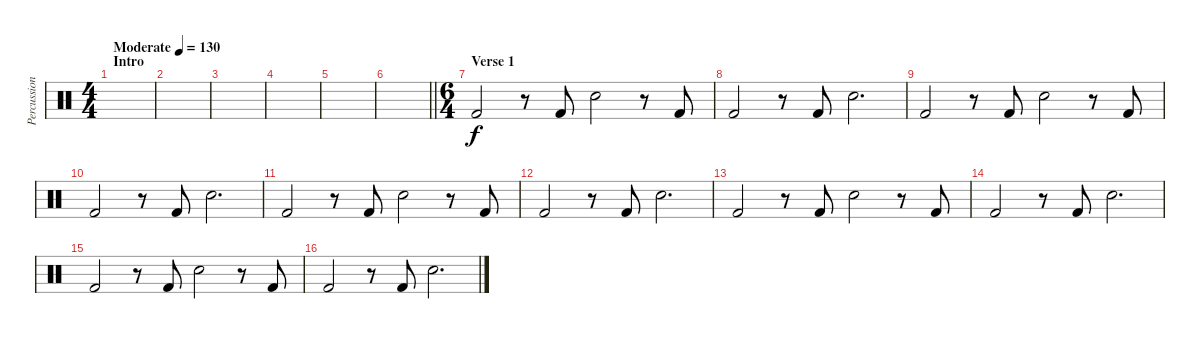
\track ("Percussion" "Percussion") {instrument percussion}
\staff {score}
\articulation defaults
\ts (4 4)
\section ("" "Intro")
\tempo (130 "Moderate")
\clef neutral
\ks c
|
|
|
|
|
\barLineRight lightlight
|
\ts (6 4)
\section ("" "Verse 1")
"Kick (hit) 2".2 r.8 "Kick (hit) 2".8 "Electric Snare (hit)".2 r.8 "Kick (hit) 2".8 |
"Kick (hit) 2".2 r.8 "Kick (hit) 2".8 "Electric Snare (hit)".2{d} |
"Kick (hit) 2".2 r.8 "Kick (hit) 2".8 "Electric Snare (hit)".2 r.8 "Kick (hit) 2".8 |
"Kick (hit) 2".2 r.8 "Kick (hit) 2".8 "Electric Snare (hit)".2{d} |
"Kick (hit) 2".2 r.8 "Kick (hit) 2".8 "Electric Snare (hit)".2 r.8 "Kick (hit) 2".8 |
"Kick (hit) 2".2 r.8 "Kick (hit) 2".8 "Electric Snare (hit)".2{d} |
"Kick (hit) 2".2 r.8 "Kick (hit) 2".8 "Electric Snare (hit)".2 r.8 "Kick (hit) 2".8 |
"Kick (hit) 2".2 r.8 "Kick (hit) 2".8 "Electric Snare (hit)".2{d} |
"Kick (hit) 2".2 r.8 "Kick (hit) 2".8 "Electric Snare (hit)".2 r.8 "Kick (hit) 2".8 |
"Kick (hit) 2".2 r.8 "Kick (hit) 2".8 "Electric Snare (hit)".2{d}
